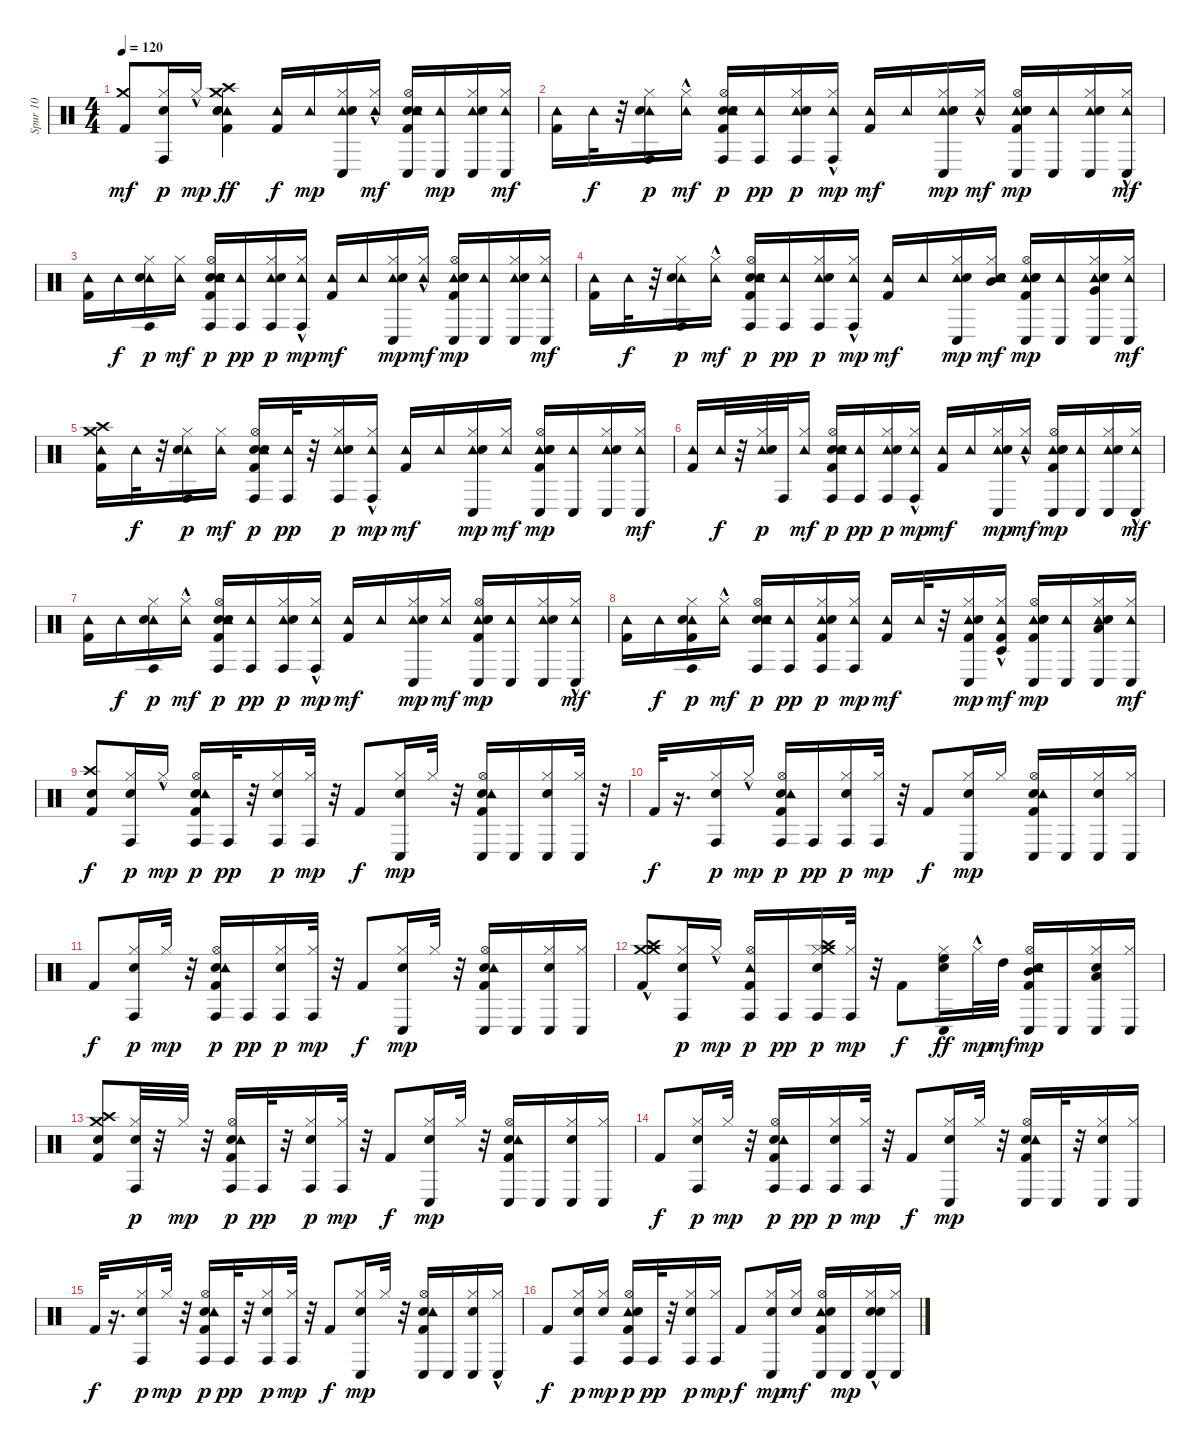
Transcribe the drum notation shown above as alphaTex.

\track ("Spur 10" "Spur 10") {instrument percussion}
\staff {score}
\articulation defaults
\ts (4 4)
\tempo 120
\clef neutral
\ks c
("Crash medium (hit)" "Kick (hit) 2").8{dy mf} ("Hi-Hat (closed)" "Snare (hit)" "Conga high (hit)").16{dy p} "Hi-Hat (closed)"{hac}.16{dy mp} ("Crash high (hit)" "Tambourine (hit)" "Hand Clap (hit)" "Kick (hit) 2" "Snare (hit) 2" "Crash medium (hit)").4{dy ff} ("Tambourine (hit)" "Kick (hit) 2").16{dy f} "Tambourine (hit)".16{dy mp} ("Hi-Hat (closed)" "Tambourine (hit)" "Snare (hit)" "Conga low (hit)").16 ("Hi-Hat (closed)"{hac} "Tambourine (hit)").16{dy mf} ("Snare (hit) 2" "Hi-Hat (open)" "Tambourine (hit)" "Hand Clap (hit)" "Kick (hit) 2" "Conga low (hit)").16 ("Tambourine (hit)" "Conga low (hit)").16{dy mp} ("Hi-Hat (closed)" "Tambourine (hit)" "Snare (hit)" "Conga low (hit)").16 ("Conga low (hit)" "Hi-Hat (closed)" "Tambourine (hit)").16{dy mf} |
("Tambourine (hit)" "Kick (hit) 2").16 "Tambourine (hit)".32{dy f} r.32 ("Hi-Hat (closed)" "Tambourine (hit)" "Snare (hit)" "Conga high (hit)").16{dy p} ("Hi-Hat (closed)"{hac} "Tambourine (hit)").16{dy mf} ("Hand Clap (hit)" "Hi-Hat (open)" "Tambourine (hit)" "Snare (hit) 2" "Kick (hit) 2" "Conga high (hit)").16{dy p} ("Tambourine (hit)" "Conga high (hit)").16{dy pp} ("Hi-Hat (closed)" "Tambourine (hit)" "Snare (hit)" "Conga high (hit)").16{dy p} ("Hi-Hat (closed)"{hac} "Tambourine (hit)" "Conga high (hit)").16{dy mp} ("Tambourine (hit)" "Kick (hit) 2").16{dy mf} "Tambourine (hit)".16 ("Hi-Hat (closed)" "Tambourine (hit)" "Snare (hit)" "Conga low (hit)").16{dy mp} ("Hi-Hat (closed)"{hac} "Tambourine (hit)").16{dy mf} ("Hi-Hat (open)" "Tambourine (hit)" "Hand Clap (hit)" "Kick (hit) 2" "Conga low (hit)" "Snare (hit) 2").16{dy mp} ("Tambourine (hit)" "Conga low (hit)").16 ("Hi-Hat (closed)" "Tambourine (hit)" "Snare (hit)" "Conga low (hit)").16 ("Conga low (hit)" "Hi-Hat (closed)"{hac} "Tambourine (hit)").16{dy mf} |
("Tambourine (hit)" "Kick (hit) 2").16 "Tambourine (hit)".16{dy f} ("Hi-Hat (closed)" "Tambourine (hit)" "Snare (hit)" "Conga high (hit)").16{dy p} ("Hi-Hat (closed)" "Tambourine (hit)").16{dy mf} ("Hand Clap (hit)" "Hi-Hat (open)" "Tambourine (hit)" "Snare (hit) 2" "Kick (hit) 2" "Conga high (hit)").16{dy p} ("Tambourine (hit)" "Conga high (hit)").16{dy pp} ("Hi-Hat (closed)" "Tambourine (hit)" "Snare (hit)" "Conga high (hit)").16{dy p} ("Hi-Hat (closed)"{hac} "Tambourine (hit)" "Conga high (hit)").16{dy mp} ("Tambourine (hit)" "Kick (hit) 2").16{dy mf} "Tambourine (hit)".16 ("Hi-Hat (closed)" "Tambourine (hit)" "Snare (hit)" "Conga low (hit)").16{dy mp} ("Hi-Hat (closed)"{hac} "Tambourine (hit)").16{dy mf} ("Hi-Hat (open)" "Tambourine (hit)" "Hand Clap (hit)" "Kick (hit) 2" "Conga low (hit)" "Snare (hit) 2").16{dy mp} ("Tambourine (hit)" "Conga low (hit)").16 ("Hi-Hat (closed)" "Tambourine (hit)" "Snare (hit)" "Conga low (hit)").16 ("Conga low (hit)" "Hi-Hat (closed)" "Tambourine (hit)").16{dy mf} |
("Tambourine (hit)" "Kick (hit) 2").16 "Tambourine (hit)".32{dy f} r.32 ("Hi-Hat (closed)" "Tambourine (hit)" "Snare (hit)" "Conga high (hit)").16{dy p} ("Hi-Hat (closed)"{hac} "Tambourine (hit)").16{dy mf} ("Hand Clap (hit)" "Hi-Hat (open)" "Tambourine (hit)" "Snare (hit) 2" "Kick (hit) 2" "Conga high (hit)").16{dy p} ("Tambourine (hit)" "Conga high (hit)").16{dy pp} ("Hi-Hat (closed)" "Tambourine (hit)" "Snare (hit)" "Conga high (hit)").16{dy p} ("Hi-Hat (closed)"{hac} "Tambourine (hit)" "Conga high (hit)").16{dy mp} ("Tambourine (hit)" "Kick (hit) 2").16{dy mf} "Tambourine (hit)".16 ("Hi-Hat (closed)" "Tambourine (hit)" "Snare (hit)" "Conga low (hit)").16{dy mp} ("Hi-Hat (closed)" "Tambourine (hit)" "Mid Tom (hit)" "Snare (hit) 2").16{dy mf} ("Hi-Hat (open)" "Tambourine (hit)" "Hand Clap (hit)" "Kick (hit) 2" "Conga low (hit)" "Snare (hit) 2").16{dy mp} ("Tambourine (hit)" "Conga low (hit)").16 ("Hi-Hat (closed)" "Tambourine (hit)" "Snare (hit)" "Conga low (hit)" "Very Low Tom (hit)").16 ("Conga low (hit)" "Hi-Hat (closed)" "Tambourine (hit)").16{dy mf} |
("Crash high (hit)" "Crash medium (hit)" "Tambourine (hit)" "Kick (hit) 2").16 "Tambourine (hit)".32{dy f} r.32 ("Hi-Hat (closed)" "Tambourine (hit)" "Snare (hit)" "Conga high (hit)").16{dy p} ("Hi-Hat (closed)" "Tambourine (hit)").16{dy mf} ("Hand Clap (hit)" "Hi-Hat (open)" "Tambourine (hit)" "Snare (hit) 2" "Kick (hit) 2" "Conga high (hit)").16{dy p} ("Tambourine (hit)" "Conga high (hit)").32{dy pp} r.32 ("Hi-Hat (closed)" "Tambourine (hit)" "Snare (hit)" "Conga high (hit)").16{dy p} ("Hi-Hat (closed)"{hac} "Tambourine (hit)" "Conga high (hit)").16{dy mp} ("Tambourine (hit)" "Kick (hit) 2").16{dy mf} "Tambourine (hit)".16 ("Hi-Hat (closed)" "Tambourine (hit)" "Snare (hit)" "Conga low (hit)").16{dy mp} ("Hi-Hat (closed)" "Tambourine (hit)").16{dy mf} ("Hi-Hat (open)" "Tambourine (hit)" "Hand Clap (hit)" "Kick (hit) 2" "Conga low (hit)" "Snare (hit) 2").16{dy mp} ("Tambourine (hit)" "Conga low (hit)").16 ("Hi-Hat (closed)" "Tambourine (hit)" "Snare (hit)" "Conga low (hit)").16 ("Conga low (hit)" "Hi-Hat (closed)" "Tambourine (hit)").16{dy mf} |
("Tambourine (hit)" "Kick (hit) 2").16 "Tambourine (hit)".32{dy f} r.32 ("Hi-Hat (closed)" "Tambourine (hit)" "Snare (hit)").32{dy p} "Conga high (hit)".32 ("Hi-Hat (closed)" "Tambourine (hit)").16{dy mf} ("Hand Clap (hit)" "Hi-Hat (open)" "Tambourine (hit)" "Snare (hit) 2" "Kick (hit) 2" "Conga high (hit)").16{dy p} ("Tambourine (hit)" "Conga high (hit)").16{dy pp} ("Hi-Hat (closed)" "Tambourine (hit)" "Snare (hit)" "Conga high (hit)").16{dy p} ("Hi-Hat (closed)"{hac} "Tambourine (hit)" "Conga high (hit)").16{dy mp} ("Tambourine (hit)" "Kick (hit) 2").16{dy mf} "Tambourine (hit)".16 ("Hi-Hat (closed)" "Tambourine (hit)" "Snare (hit)" "Conga low (hit)").16{dy mp} ("Hi-Hat (closed)"{hac} "Tambourine (hit)").16{dy mf} ("Hi-Hat (open)" "Tambourine (hit)" "Hand Clap (hit)" "Kick (hit) 2" "Conga low (hit)" "Snare (hit) 2").16{dy mp} ("Tambourine (hit)" "Conga low (hit)").16 ("Hi-Hat (closed)" "Tambourine (hit)" "Snare (hit)" "Conga low (hit)").16 ("Conga low (hit)" "Hi-Hat (closed)"{hac} "Tambourine (hit)").16{dy mf} |
("Tambourine (hit)" "Kick (hit) 2").16 "Tambourine (hit)".16{dy f} ("Hi-Hat (closed)" "Tambourine (hit)" "Snare (hit)" "Conga high (hit)").16{dy p} ("Hi-Hat (closed)"{hac} "Tambourine (hit)").16{dy mf} ("Hand Clap (hit)" "Hi-Hat (open)" "Tambourine (hit)" "Snare (hit) 2" "Kick (hit) 2" "Conga high (hit)").16{dy p} ("Tambourine (hit)" "Conga high (hit)").16{dy pp} ("Hi-Hat (closed)" "Tambourine (hit)" "Snare (hit)" "Conga high (hit)").16{dy p} ("Hi-Hat (closed)"{hac} "Tambourine (hit)" "Conga high (hit)").16{dy mp} ("Tambourine (hit)" "Kick (hit) 2").16{dy mf} "Tambourine (hit)".16 ("Hi-Hat (closed)" "Tambourine (hit)" "Snare (hit)" "Conga low (hit)").16{dy mp} ("Hi-Hat (closed)" "Tambourine (hit)").16{dy mf} ("Hi-Hat (open)" "Tambourine (hit)" "Hand Clap (hit)" "Kick (hit) 2" "Conga low (hit)" "Snare (hit) 2").16{dy mp} ("Tambourine (hit)" "Conga low (hit)").16 ("Hi-Hat (closed)" "Tambourine (hit)" "Snare (hit)" "Conga low (hit)").16 ("Conga low (hit)" "Hi-Hat (closed)"{hac} "Tambourine (hit)").16{dy mf} |
("Tambourine (hit)" "Kick (hit) 2").16 "Tambourine (hit)".16{dy f} ("Hi-Hat (closed)" "Tambourine (hit)" "Snare (hit)" "Kick (hit) 2" "Conga high (hit)").16{dy p} ("Hi-Hat (closed)"{hac} "Tambourine (hit)").16{dy mf} ("Hand Clap (hit)" "Hi-Hat (open)" "Tambourine (hit)" "Snare (hit) 2" "Conga high (hit)").16{dy p} ("Tambourine (hit)" "Conga high (hit)").16{dy pp} ("Hi-Hat (closed)" "Tambourine (hit)" "Snare (hit)" "Kick (hit) 2" "Conga high (hit)").16{dy p} ("Hi-Hat (closed)" "Tambourine (hit)" "Conga high (hit)").16{dy mp} ("Tambourine (hit)" "Kick (hit) 2").16{dy mf} "Tambourine (hit)".32 r.32 ("Kick (hit) 2" "Hi-Hat (closed)" "Tambourine (hit)" "Snare (hit)" "Conga low (hit)").16{dy mp} ("Kick (hit) 2" "Hi-Hat (closed)"{hac} "Tambourine (hit)" "Timbale low (hit)").16{dy mf} ("Hi-Hat (open)" "Tambourine (hit)" "Snare (hit) 2" "Kick (hit) 2" "Conga low (hit)" "Snare (hit) 2").16{dy mp} ("Tambourine (hit)" "Conga low (hit)").16 ("Hi-Hat (closed)" "Tambourine (hit)" "Low Floor Tom (hit)" "Snare (hit)" "Conga low (hit)").16 ("Conga low (hit)" "Hi-Hat (closed)" "Tambourine (hit)").16{dy mf} |
("Crash high (hit)" "Snare (hit) 2" "Kick (hit) 2").8{dy f} ("Hi-Hat (closed)" "Snare (hit)" "Conga high (hit)").16{dy p} "Hi-Hat (closed)"{hac}.16{dy mp} ("Hi-Hat (open)" "Snare (hit) 2" "Tambourine (hit)" "Kick (hit) 2" "Conga high (hit)").16{dy p} "Conga high (hit)".32{dy pp} r.32 ("Hi-Hat (closed)" "Snare (hit)" "Conga high (hit)").16{dy p} ("Hi-Hat (closed)" "Conga high (hit)").32{dy mp} r.32 "Kick (hit) 2".8{dy f} ("Hi-Hat (closed)" "Snare (hit)" "Conga low (hit)").16{dy mp} "Hi-Hat (closed)".32 r.32 ("Hi-Hat (open)" "Snare (hit) 2" "Kick (hit) 2" "Tambourine (hit)" "Conga low (hit)").16 "Conga low (hit)".16 ("Hi-Hat (closed)" "Snare (hit)" "Conga low (hit)").16 ("Conga low (hit)" "Hi-Hat (closed)").32 r.32 |
"Kick (hit) 2".32{dy f} r.16{d} ("Hi-Hat (closed)" "Snare (hit)" "Conga high (hit)").16{dy p} "Hi-Hat (closed)"{hac}.16{dy mp} ("Hi-Hat (open)" "Snare (hit) 2" "Tambourine (hit)" "Kick (hit) 2" "Conga high (hit)").16{dy p} "Conga high (hit)".16{dy pp} ("Hi-Hat (closed)" "Snare (hit)" "Conga high (hit)").16{dy p} ("Hi-Hat (closed)" "Conga high (hit)").32{dy mp} r.32 "Kick (hit) 2".8{dy f} ("Hi-Hat (closed)" "Snare (hit)" "Conga low (hit)").16{dy mp} "Hi-Hat (closed)".16 ("Hi-Hat (open)" "Snare (hit) 2" "Kick (hit) 2" "Tambourine (hit)" "Conga low (hit)").16 "Conga low (hit)".16 ("Hi-Hat (closed)" "Snare (hit)" "Conga low (hit)").16 ("Conga low (hit)" "Hi-Hat (closed)").16 |
"Kick (hit) 2".8{dy f} ("Hi-Hat (closed)" "Snare (hit)" "Conga high (hit)").16{dy p} "Hi-Hat (closed)".32{dy mp} r.32 ("Hi-Hat (open)" "Snare (hit) 2" "Tambourine (hit)" "Kick (hit) 2" "Conga high (hit)").16{dy p} "Conga high (hit)".16{dy pp} ("Hi-Hat (closed)" "Snare (hit)" "Conga high (hit)").16{dy p} ("Hi-Hat (closed)" "Conga high (hit)").32{dy mp} r.32 "Kick (hit) 2".8{dy f} ("Hi-Hat (closed)" "Snare (hit)" "Conga low (hit)").16{dy mp} "Hi-Hat (closed)".32 r.32 ("Hi-Hat (open)" "Snare (hit) 2" "Kick (hit) 2" "Tambourine (hit)" "Conga low (hit)").16 "Conga low (hit)".16 ("Hi-Hat (closed)" "Snare (hit)" "Conga low (hit)").16 ("Conga low (hit)" "Hi-Hat (closed)").16 |
("Crash medium (hit)"{hac} "Crash high (hit)"{hac} "Crash medium (hit)"{hac} "Kick (hit) 2").8 ("Hi-Hat (closed)" "Snare (hit)" "Conga high (hit)").16{dy p} "Hi-Hat (closed)"{hac}.16{dy mp} ("Hi-Hat (open)" "Tambourine (hit)" "Kick (hit) 2" "Conga high (hit)").16{dy p} "Conga high (hit)".16{dy pp} ("Hi-Hat (closed)" "Snare (hit)" "Crash medium (hit)" "Crash high (hit)" "Conga high (hit)").16{dy p} ("Hi-Hat (closed)" "Conga high (hit)").32{dy mp} r.32 "Kick (hit) 2".8{dy f} ("Hi-Hat (closed)" "Snare (hit)" "Conga low (hit)" "High Floor Tom (hit)").16{dy ff} "Hi-Hat (closed)"{hac}.32{dy mp} "High Tom (hit)".32{dy mf} ("Snare (hit) 2" "Hi-Hat (open)" "Kick (hit) 2" "Tambourine (hit)" "Conga low (hit)" "Mid Tom (hit)").16{dy mp} "Conga low (hit)".16 ("Hi-Hat (closed)" "Low Floor Tom (hit)" "Snare (hit)" "Conga low (hit)").16 ("Conga low (hit)" "Hi-Hat (closed)").16 |
("Crash medium (hit)" "Crash high (hit)" "Snare (hit) 2" "Kick (hit) 2").8 ("Hi-Hat (closed)" "Snare (hit)" "Conga high (hit)").32{dy p} r.32 "Hi-Hat (closed)".32{dy mp} r.32 ("Hi-Hat (open)" "Snare (hit) 2" "Tambourine (hit)" "Kick (hit) 2" "Conga high (hit)").16{dy p} "Conga high (hit)".32{dy pp} r.32 ("Hi-Hat (closed)" "Snare (hit)" "Conga high (hit)").16{dy p} ("Hi-Hat (closed)" "Conga high (hit)").32{dy mp} r.32 "Kick (hit) 2".8{dy f} ("Hi-Hat (closed)" "Snare (hit)" "Conga low (hit)").16{dy mp} "Hi-Hat (closed)".32 r.32 ("Hi-Hat (open)" "Snare (hit) 2" "Kick (hit) 2" "Tambourine (hit)" "Conga low (hit)").16 "Conga low (hit)".16 ("Hi-Hat (closed)" "Snare (hit)" "Conga low (hit)").16 ("Conga low (hit)" "Hi-Hat (closed)").16 |
"Kick (hit) 2".8{dy f} ("Hi-Hat (closed)" "Snare (hit)" "Conga high (hit)").16{dy p} "Hi-Hat (closed)".32{dy mp} r.32 ("Hi-Hat (open)" "Snare (hit) 2" "Tambourine (hit)" "Kick (hit) 2" "Conga high (hit)").16{dy p} "Conga high (hit)".16{dy pp} ("Hi-Hat (closed)" "Snare (hit)" "Conga high (hit)").16{dy p} ("Hi-Hat (closed)" "Conga high (hit)").32{dy mp} r.32 "Kick (hit) 2".8{dy f} ("Hi-Hat (closed)" "Snare (hit)" "Conga low (hit)").16{dy mp} "Hi-Hat (closed)".32 r.32 ("Hi-Hat (open)" "Snare (hit) 2" "Kick (hit) 2" "Tambourine (hit)" "Conga low (hit)").16 "Conga low (hit)".32 r.32 ("Hi-Hat (closed)" "Snare (hit)" "Conga low (hit)").16 ("Conga low (hit)" "Hi-Hat (closed)").16 |
"Kick (hit) 2".32{dy f} r.16{d} ("Hi-Hat (closed)" "Snare (hit)" "Conga high (hit)").16{dy p} "Hi-Hat (closed)".32{dy mp} r.32 ("Hi-Hat (open)" "Snare (hit) 2" "Tambourine (hit)" "Kick (hit) 2" "Conga high (hit)").16{dy p} "Conga high (hit)".32{dy pp} r.32 ("Hi-Hat (closed)" "Snare (hit)" "Conga high (hit)").16{dy p} ("Hi-Hat (closed)" "Conga high (hit)").32{dy mp} r.32 "Kick (hit) 2".8{dy f} ("Hi-Hat (closed)" "Snare (hit)" "Conga low (hit)").16{dy mp} "Hi-Hat (closed)".32 r.32 ("Hi-Hat (open)" "Snare (hit) 2" "Kick (hit) 2" "Tambourine (hit)" "Conga low (hit)").16 "Conga low (hit)".16 ("Hi-Hat (closed)" "Snare (hit)" "Conga low (hit)").16 ("Conga low (hit)" "Hi-Hat (closed)"{hac}).16 |
"Kick (hit) 2".8{dy f} ("Hi-Hat (closed)" "Snare (hit)" "Conga high (hit)").16{dy p} ("Hi-Hat (closed)" "Snare (hit) 2").16{dy mp} ("Hi-Hat (open)" "Tambourine (hit)" "Kick (hit) 2" "Snare (hit) 2" "Conga high (hit)").16{dy p} "Conga high (hit)".32{dy pp} r.32 ("Hi-Hat (closed)" "Snare (hit)" "Conga high (hit)").16{dy p} ("Hi-Hat (closed)" "Conga high (hit)").16{dy mp} "Kick (hit) 2".8{dy f} ("Hi-Hat (closed)" "Snare (hit)" "Conga low (hit)").16{dy mp} ("Hi-Hat (closed)" "Snare (hit) 2").16{dy mf} ("Hi-Hat (open)" "Kick (hit) 2" "Tambourine (hit)" "Conga low (hit)" "Snare (hit) 2").16 "Conga low (hit)".16{dy mp} ("Hi-Hat (closed)" "Snare (hit)" "Conga low (hit)" "Snare (hit) 2"{hac}).16 ("Conga low (hit)" "Hi-Hat (closed)").16
